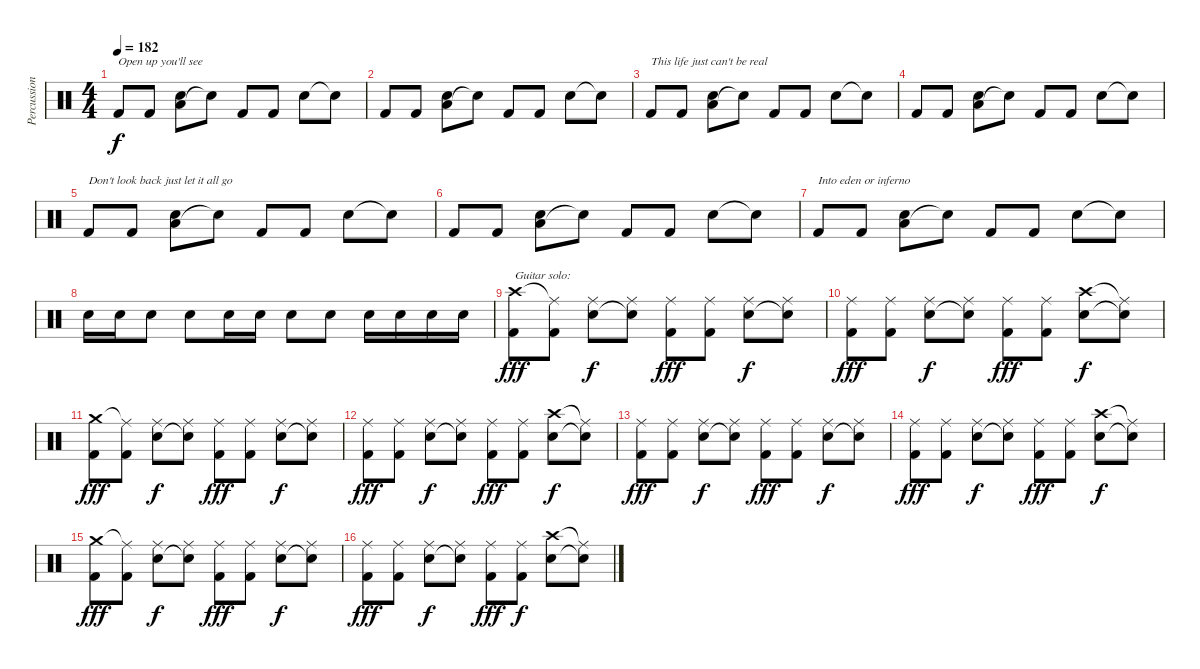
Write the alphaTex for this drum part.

\track ("Percussion" "Percussion") {instrument percussion}
\staff {score}
\articulation defaults
\ts (4 4)
\tempo 182
\clef neutral
\ks c "Kick (hit) 2".8{txt "Open up you'll see" dy f} "Kick (hit) 2".8
("Low Floor Tom (hit)" "Snare (hit) 2").8 "Snare (hit)"{t}.8 "Kick (hit) 2".8 "Kick (hit) 2".8 "Snare (hit) 2".8 "Snare (hit)"{t}.8 |
"Kick (hit) 2".8 "Kick (hit) 2".8 ("Low Floor Tom (hit)" "Snare (hit) 2").8 "Snare (hit)"{t}.8 "Kick (hit) 2".8 "Kick (hit) 2".8 "Snare (hit) 2".8 "Snare (hit)"{t}.8 |
"Kick (hit) 2".8{txt "This life just can't be real"} "Kick (hit) 2".8 ("Low Floor Tom (hit)" "Snare (hit) 2").8 "Snare (hit)"{t}.8 "Kick (hit) 2".8 "Kick (hit) 2".8 "Snare (hit) 2".8 "Snare (hit)"{t}.8 |
"Kick (hit) 2".8 "Kick (hit) 2".8 ("Low Floor Tom (hit)" "Snare (hit) 2").8 "Snare (hit)"{t}.8 "Kick (hit) 2".8 "Kick (hit) 2".8 "Snare (hit) 2".8 "Snare (hit)"{t}.8 |
"Kick (hit) 2".8{txt "Don't look back just let it all go"} "Kick (hit) 2".8 ("Low Floor Tom (hit)" "Snare (hit) 2").8 "Snare (hit)"{t}.8 "Kick (hit) 2".8 "Kick (hit) 2".8 "Snare (hit) 2".8 "Snare (hit)"{t}.8 |
"Kick (hit) 2".8 "Kick (hit) 2".8 ("Low Floor Tom (hit)" "Snare (hit) 2").8 "Snare (hit)"{t}.8 "Kick (hit) 2".8 "Kick (hit) 2".8 "Snare (hit) 2".8 "Snare (hit)"{t}.8 |
"Kick (hit) 2".8{txt "Into eden or inferno"} "Kick (hit) 2".8 ("Low Floor Tom (hit)" "Snare (hit) 2").8 "Snare (hit)"{t}.8 "Kick (hit) 2".8 "Kick (hit) 2".8 "Snare (hit) 2".8 "Snare (hit)"{t}.8 |
"Snare (hit) 2".16 "Snare (hit) 2".16 "Snare (hit) 2".8 "Snare (hit) 2".8 "Snare (hit) 2".16 "Snare (hit) 2".16 "Snare (hit) 2".8 "Snare (hit) 2".8 "Snare (hit) 2".16 "Snare (hit) 2".16 "Snare (hit) 2".16 "Snare (hit) 2".16 |
("Crash high (hit)" "Kick (hit) 2").8{txt "Guitar solo:" dy fff} ("Ride (middle)"{t} "Kick (hit) 2").8 ("Ride (middle)" "Snare (hit) 2").8{dy f} ("Ride (middle)" "Snare (hit)"{t}).8 ("Ride (middle)" "Kick (hit) 2").8{dy fff} ("Ride (middle)" "Kick (hit) 2").8 ("Ride (middle)" "Snare (hit) 2").8{dy f} ("Ride (middle)" "Snare (hit)"{t}).8 |
("Ride (middle)" "Kick (hit) 2").8{dy fff} ("Ride (middle)" "Kick (hit) 2").8 ("Ride (middle)" "Snare (hit) 2").8{dy f} ("Ride (middle)" "Snare (hit)"{t}).8 ("Ride (middle)" "Kick (hit) 2").8{dy fff} ("Ride (middle)" "Kick (hit) 2").8 ("Crash high (hit)" "Snare (hit) 2").8{dy f} ("Ride (middle)"{t} "Snare (hit)"{t}).8 |
("Crash medium (hit)" "Kick (hit) 2").8{dy fff} ("Ride (middle)"{t} "Kick (hit) 2").8 ("Ride (middle)" "Snare (hit) 2").8{dy f} ("Ride (middle)" "Snare (hit)"{t}).8 ("Ride (middle)" "Kick (hit) 2").8{dy fff} ("Ride (middle)" "Kick (hit) 2").8 ("Ride (middle)" "Snare (hit) 2").8{dy f} ("Ride (middle)" "Snare (hit)"{t}).8 |
("Ride (middle)" "Kick (hit) 2").8{dy fff} ("Ride (middle)" "Kick (hit) 2").8 ("Ride (middle)" "Snare (hit) 2").8{dy f} ("Ride (middle)" "Snare (hit)"{t}).8 ("Ride (middle)" "Kick (hit) 2").8{dy fff} ("Ride (middle)" "Kick (hit) 2").8 ("Crash high (hit)" "Snare (hit) 2").8{dy f} ("Ride (middle)"{t} "Snare (hit)"{t}).8 |
("Ride (middle)" "Kick (hit) 2").8{dy fff} ("Ride (middle)" "Kick (hit) 2").8 ("Ride (middle)" "Snare (hit) 2").8{dy f} ("Ride (middle)" "Snare (hit)"{t}).8 ("Ride (middle)" "Kick (hit) 2").8{dy fff} ("Ride (middle)" "Kick (hit) 2").8 ("Ride (middle)" "Snare (hit) 2").8{dy f} ("Ride (middle)" "Snare (hit)"{t}).8 |
("Ride (middle)" "Kick (hit) 2").8{dy fff} ("Ride (middle)" "Kick (hit) 2").8 ("Ride (middle)" "Snare (hit) 2").8{dy f} ("Ride (middle)" "Snare (hit)"{t}).8 ("Ride (middle)" "Kick (hit) 2").8{dy fff} ("Ride (middle)" "Kick (hit) 2").8 ("Crash high (hit)" "Snare (hit) 2").8{dy f} ("Ride (middle)"{t} "Snare (hit)"{t}).8 |
("Crash medium (hit)" "Kick (hit) 2").8{dy fff} ("Ride (middle)"{t} "Kick (hit) 2").8 ("Ride (middle)" "Snare (hit) 2").8{dy f} ("Ride (middle)" "Snare (hit)"{t}).8 ("Ride (middle)" "Kick (hit) 2").8{dy fff} ("Ride (middle)" "Kick (hit) 2").8 ("Ride (middle)" "Snare (hit) 2").8{dy f} ("Ride (middle)" "Snare (hit)"{t}).8 |
("Ride (middle)" "Kick (hit) 2").8{dy fff} ("Ride (middle)" "Kick (hit) 2").8 ("Ride (middle)" "Snare (hit) 2").8{dy f} ("Ride (middle)" "Snare (hit)"{t}).8 ("Ride (middle)" "Kick (hit) 2").8{dy fff} ("Ride (middle)" "Kick (hit) 2").8{dy f} ("Crash high (hit)" "Snare (hit) 2").8 ("Ride (middle)"{t} "Snare (hit)"{t}).8
